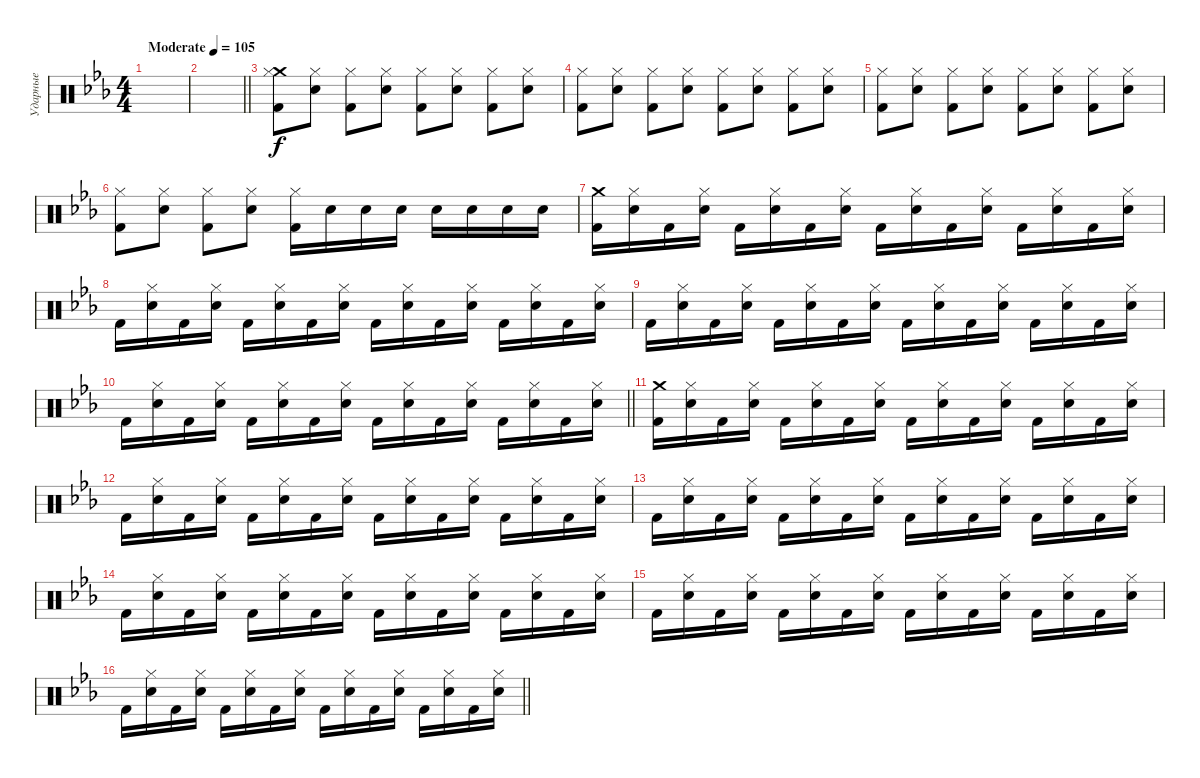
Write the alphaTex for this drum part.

\track ("Ударные" "Ударные") {instrument percussion}
\staff {score}
\articulation defaults
\ts (4 4)
\section ("" "")
\tempo (105 "Moderate")
\clef neutral
\ks cminor
|
\barLineRight lightlight
|
\section ("" "")
("Crash medium (hit)" "Kick (hit) 2" "Hi-Hat (closed)").8 ("Electric Snare (hit)" "Hi-Hat (closed)").8 ("Kick (hit) 2" "Hi-Hat (closed)").8 ("Electric Snare (hit)" "Hi-Hat (closed)").8 ("Kick (hit) 2" "Hi-Hat (closed)").8 ("Electric Snare (hit)" "Hi-Hat (closed)").8 ("Kick (hit) 2" "Hi-Hat (closed)").8 ("Electric Snare (hit)" "Hi-Hat (closed)").8 |
("Kick (hit) 2" "Hi-Hat (closed)").8 ("Electric Snare (hit)" "Hi-Hat (closed)").8 ("Kick (hit) 2" "Hi-Hat (closed)").8 ("Electric Snare (hit)" "Hi-Hat (closed)").8 ("Kick (hit) 2" "Hi-Hat (closed)").8 ("Electric Snare (hit)" "Hi-Hat (closed)").8 ("Kick (hit) 2" "Hi-Hat (closed)").8 ("Electric Snare (hit)" "Hi-Hat (closed)").8 |
("Kick (hit) 2" "Hi-Hat (closed)").8 ("Electric Snare (hit)" "Hi-Hat (closed)").8 ("Kick (hit) 2" "Hi-Hat (closed)").8 ("Electric Snare (hit)" "Hi-Hat (closed)").8 ("Kick (hit) 2" "Hi-Hat (closed)").8 ("Electric Snare (hit)" "Hi-Hat (closed)").8 ("Kick (hit) 2" "Hi-Hat (closed)").8 ("Electric Snare (hit)" "Hi-Hat (closed)").8 |
("Kick (hit) 2" "Hi-Hat (closed)").8 ("Electric Snare (hit)" "Hi-Hat (closed)").8 ("Kick (hit) 2" "Hi-Hat (closed)").8 ("Electric Snare (hit)" "Hi-Hat (closed)").8 ("Kick (hit) 2" "Hi-Hat (closed)").16 "Electric Snare (hit)".16 "Electric Snare (hit)".16 "Electric Snare (hit)".16 "Electric Snare (hit)".16 "Electric Snare (hit)".16 "Electric Snare (hit)".16 "Electric Snare (hit)".16 |
("Crash medium (hit)" "Kick (hit) 2").16 ("Electric Snare (hit)" "Hi-Hat (closed)").16 "Kick (hit) 2".16 ("Electric Snare (hit)" "Hi-Hat (closed)").16 "Kick (hit) 2".16 ("Electric Snare (hit)" "Hi-Hat (closed)").16 "Kick (hit) 2".16 ("Electric Snare (hit)" "Hi-Hat (closed)").16 "Kick (hit) 2".16 ("Electric Snare (hit)" "Hi-Hat (closed)").16 "Kick (hit) 2".16 ("Electric Snare (hit)" "Hi-Hat (closed)").16 "Kick (hit) 2".16 ("Electric Snare (hit)" "Hi-Hat (closed)").16 "Kick (hit) 2".16 ("Electric Snare (hit)" "Hi-Hat (closed)").16 |
"Kick (hit) 2".16 ("Electric Snare (hit)" "Hi-Hat (closed)").16 "Kick (hit) 2".16 ("Electric Snare (hit)" "Hi-Hat (closed)").16 "Kick (hit) 2".16 ("Electric Snare (hit)" "Hi-Hat (closed)").16 "Kick (hit) 2".16 ("Electric Snare (hit)" "Hi-Hat (closed)").16 "Kick (hit) 2".16 ("Electric Snare (hit)" "Hi-Hat (closed)").16 "Kick (hit) 2".16 ("Electric Snare (hit)" "Hi-Hat (closed)").16 "Kick (hit) 2".16 ("Electric Snare (hit)" "Hi-Hat (closed)").16 "Kick (hit) 2".16 ("Electric Snare (hit)" "Hi-Hat (closed)").16 |
"Kick (hit) 2".16 ("Electric Snare (hit)" "Hi-Hat (closed)").16 "Kick (hit) 2".16 ("Electric Snare (hit)" "Hi-Hat (closed)").16 "Kick (hit) 2".16 ("Electric Snare (hit)" "Hi-Hat (closed)").16 "Kick (hit) 2".16 ("Electric Snare (hit)" "Hi-Hat (closed)").16 "Kick (hit) 2".16 ("Electric Snare (hit)" "Hi-Hat (closed)").16 "Kick (hit) 2".16 ("Electric Snare (hit)" "Hi-Hat (closed)").16 "Kick (hit) 2".16 ("Electric Snare (hit)" "Hi-Hat (closed)").16 "Kick (hit) 2".16 ("Electric Snare (hit)" "Hi-Hat (closed)").16 |
\barLineRight lightlight "Kick (hit) 2".16
("Electric Snare (hit)" "Hi-Hat (closed)").16 "Kick (hit) 2".16 ("Electric Snare (hit)" "Hi-Hat (closed)").16 "Kick (hit) 2".16 ("Electric Snare (hit)" "Hi-Hat (closed)").16 "Kick (hit) 2".16 ("Electric Snare (hit)" "Hi-Hat (closed)").16 "Kick (hit) 2".16 ("Electric Snare (hit)" "Hi-Hat (closed)").16 "Kick (hit) 2".16 ("Electric Snare (hit)" "Hi-Hat (closed)").16 "Kick (hit) 2".16 ("Electric Snare (hit)" "Hi-Hat (closed)").16 "Kick (hit) 2".16 ("Electric Snare (hit)" "Hi-Hat (closed)").16 |
\section ("" "")
("Crash medium (hit)" "Kick (hit) 2").16 ("Electric Snare (hit)" "Hi-Hat (closed)").16 "Kick (hit) 2".16 ("Electric Snare (hit)" "Hi-Hat (closed)").16 "Kick (hit) 2".16 ("Electric Snare (hit)" "Hi-Hat (closed)").16 "Kick (hit) 2".16 ("Electric Snare (hit)" "Hi-Hat (closed)").16 "Kick (hit) 2".16 ("Electric Snare (hit)" "Hi-Hat (closed)").16 "Kick (hit) 2".16 ("Electric Snare (hit)" "Hi-Hat (closed)").16 "Kick (hit) 2".16 ("Electric Snare (hit)" "Hi-Hat (closed)").16 "Kick (hit) 2".16 ("Electric Snare (hit)" "Hi-Hat (closed)").16 |
"Kick (hit) 2".16 ("Electric Snare (hit)" "Hi-Hat (closed)").16 "Kick (hit) 2".16 ("Electric Snare (hit)" "Hi-Hat (closed)").16 "Kick (hit) 2".16 ("Electric Snare (hit)" "Hi-Hat (closed)").16 "Kick (hit) 2".16 ("Electric Snare (hit)" "Hi-Hat (closed)").16 "Kick (hit) 2".16 ("Electric Snare (hit)" "Hi-Hat (closed)").16 "Kick (hit) 2".16 ("Electric Snare (hit)" "Hi-Hat (closed)").16 "Kick (hit) 2".16 ("Electric Snare (hit)" "Hi-Hat (closed)").16 "Kick (hit) 2".16 ("Electric Snare (hit)" "Hi-Hat (closed)").16 |
"Kick (hit) 2".16 ("Electric Snare (hit)" "Hi-Hat (closed)").16 "Kick (hit) 2".16 ("Electric Snare (hit)" "Hi-Hat (closed)").16 "Kick (hit) 2".16 ("Electric Snare (hit)" "Hi-Hat (closed)").16 "Kick (hit) 2".16 ("Electric Snare (hit)" "Hi-Hat (closed)").16 "Kick (hit) 2".16 ("Electric Snare (hit)" "Hi-Hat (closed)").16 "Kick (hit) 2".16 ("Electric Snare (hit)" "Hi-Hat (closed)").16 "Kick (hit) 2".16 ("Electric Snare (hit)" "Hi-Hat (closed)").16 "Kick (hit) 2".16 ("Electric Snare (hit)" "Hi-Hat (closed)").16 |
"Kick (hit) 2".16 ("Electric Snare (hit)" "Hi-Hat (closed)").16 "Kick (hit) 2".16 ("Electric Snare (hit)" "Hi-Hat (closed)").16 "Kick (hit) 2".16 ("Electric Snare (hit)" "Hi-Hat (closed)").16 "Kick (hit) 2".16 ("Electric Snare (hit)" "Hi-Hat (closed)").16 "Kick (hit) 2".16 ("Electric Snare (hit)" "Hi-Hat (closed)").16 "Kick (hit) 2".16 ("Electric Snare (hit)" "Hi-Hat (closed)").16 "Kick (hit) 2".16 ("Electric Snare (hit)" "Hi-Hat (closed)").16 "Kick (hit) 2".16 ("Electric Snare (hit)" "Hi-Hat (closed)").16 |
"Kick (hit) 2".16 ("Electric Snare (hit)" "Hi-Hat (closed)").16 "Kick (hit) 2".16 ("Electric Snare (hit)" "Hi-Hat (closed)").16 "Kick (hit) 2".16 ("Electric Snare (hit)" "Hi-Hat (closed)").16 "Kick (hit) 2".16 ("Electric Snare (hit)" "Hi-Hat (closed)").16 "Kick (hit) 2".16 ("Electric Snare (hit)" "Hi-Hat (closed)").16 "Kick (hit) 2".16 ("Electric Snare (hit)" "Hi-Hat (closed)").16 "Kick (hit) 2".16 ("Electric Snare (hit)" "Hi-Hat (closed)").16 "Kick (hit) 2".16 ("Electric Snare (hit)" "Hi-Hat (closed)").16 |
\barLineRight lightlight "Kick (hit) 2".16
("Electric Snare (hit)" "Hi-Hat (closed)").16 "Kick (hit) 2".16 ("Electric Snare (hit)" "Hi-Hat (closed)").16 "Kick (hit) 2".16 ("Electric Snare (hit)" "Hi-Hat (closed)").16 "Kick (hit) 2".16 ("Electric Snare (hit)" "Hi-Hat (closed)").16 "Kick (hit) 2".16 ("Electric Snare (hit)" "Hi-Hat (closed)").16 "Kick (hit) 2".16 ("Electric Snare (hit)" "Hi-Hat (closed)").16 "Kick (hit) 2".16 ("Electric Snare (hit)" "Hi-Hat (closed)").16 "Kick (hit) 2".16 ("Electric Snare (hit)" "Hi-Hat (closed)").16
